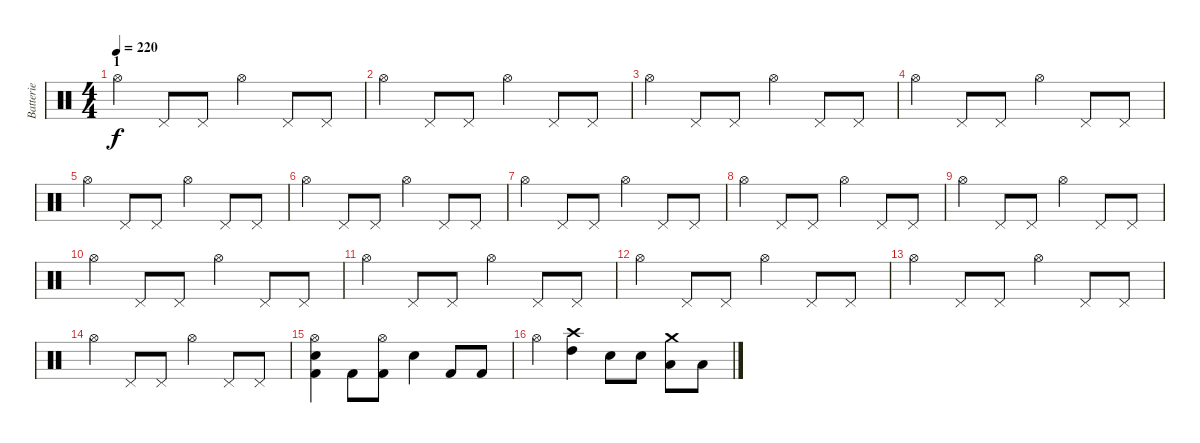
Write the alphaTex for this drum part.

\track ("Batterie" "Batterie") {instrument percussion}
\staff {score}
\articulation defaults
\ts (4 4)
\section ("" "1")
\tempo 220
\clef neutral
\ks c "Hi-Hat (open)".4{dy f} "Pedal Hi-Hat (hit)".8 "Pedal Hi-Hat (hit)".8 "Hi-Hat (open)".4 "Pedal Hi-Hat (hit)".8 "Pedal Hi-Hat (hit)".8
|
"Hi-Hat (open)".4 "Pedal Hi-Hat (hit)".8 "Pedal Hi-Hat (hit)".8 "Hi-Hat (open)".4 "Pedal Hi-Hat (hit)".8 "Pedal Hi-Hat (hit)".8 |
"Hi-Hat (open)".4 "Pedal Hi-Hat (hit)".8 "Pedal Hi-Hat (hit)".8 "Hi-Hat (open)".4 "Pedal Hi-Hat (hit)".8 "Pedal Hi-Hat (hit)".8 |
"Hi-Hat (open)".4 "Pedal Hi-Hat (hit)".8 "Pedal Hi-Hat (hit)".8 "Hi-Hat (open)".4 "Pedal Hi-Hat (hit)".8 "Pedal Hi-Hat (hit)".8 |
"Hi-Hat (open)".4 "Pedal Hi-Hat (hit)".8 "Pedal Hi-Hat (hit)".8 "Hi-Hat (open)".4 "Pedal Hi-Hat (hit)".8 "Pedal Hi-Hat (hit)".8 |
"Hi-Hat (open)".4 "Pedal Hi-Hat (hit)".8 "Pedal Hi-Hat (hit)".8 "Hi-Hat (open)".4 "Pedal Hi-Hat (hit)".8 "Pedal Hi-Hat (hit)".8 |
"Hi-Hat (open)".4 "Pedal Hi-Hat (hit)".8 "Pedal Hi-Hat (hit)".8 "Hi-Hat (open)".4 "Pedal Hi-Hat (hit)".8 "Pedal Hi-Hat (hit)".8 |
"Hi-Hat (open)".4 "Pedal Hi-Hat (hit)".8 "Pedal Hi-Hat (hit)".8 "Hi-Hat (open)".4 "Pedal Hi-Hat (hit)".8 "Pedal Hi-Hat (hit)".8 |
"Hi-Hat (open)".4 "Pedal Hi-Hat (hit)".8 "Pedal Hi-Hat (hit)".8 "Hi-Hat (open)".4 "Pedal Hi-Hat (hit)".8 "Pedal Hi-Hat (hit)".8 |
"Hi-Hat (open)".4 "Pedal Hi-Hat (hit)".8 "Pedal Hi-Hat (hit)".8 "Hi-Hat (open)".4 "Pedal Hi-Hat (hit)".8 "Pedal Hi-Hat (hit)".8 |
"Hi-Hat (open)".4 "Pedal Hi-Hat (hit)".8 "Pedal Hi-Hat (hit)".8 "Hi-Hat (open)".4 "Pedal Hi-Hat (hit)".8 "Pedal Hi-Hat (hit)".8 |
"Hi-Hat (open)".4 "Pedal Hi-Hat (hit)".8 "Pedal Hi-Hat (hit)".8 "Hi-Hat (open)".4 "Pedal Hi-Hat (hit)".8 "Pedal Hi-Hat (hit)".8 |
"Hi-Hat (open)".4 "Pedal Hi-Hat (hit)".8 "Pedal Hi-Hat (hit)".8 "Hi-Hat (open)".4 "Pedal Hi-Hat (hit)".8 "Pedal Hi-Hat (hit)".8 |
"Hi-Hat (open)".4 "Pedal Hi-Hat (hit)".8 "Pedal Hi-Hat (hit)".8 "Hi-Hat (open)".4 "Pedal Hi-Hat (hit)".8 "Pedal Hi-Hat (hit)".8 |
("Hi-Hat (open)" "Electric Snare (hit)" "Kick (hit) 2").4 "Kick (hit) 2".8 ("Hi-Hat (open)" "Kick (hit) 2").8 "Electric Snare (hit)".4 "Kick (hit) 2".8 "Kick (hit) 2".8 |
"Hi-Hat (open)".4 ("Crash high (hit)" "High Tom (hit)").4 "Electric Snare (hit)".8 "Electric Snare (hit)".8 ("Crash medium (hit)" "Low Floor Tom (hit)").8 "Low Floor Tom (hit)".8
